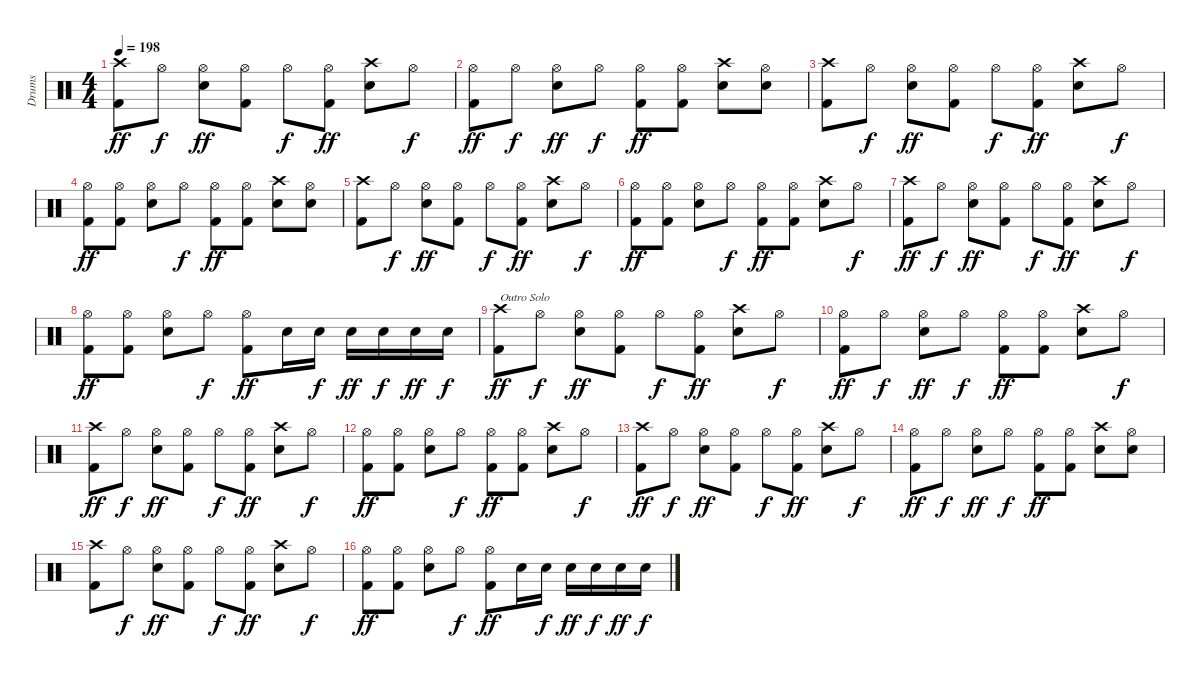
\track ("Drums" "Drums") {instrument percussion}
\staff {score}
\articulation defaults
\ts (4 4)
\tempo 198
\clef neutral
\ks c
("Crash high (hit)" "Kick (hit) 2").8{dy ff} "Hi-Hat (open)".8{dy f} ("Hi-Hat (open)" "Snare (hit) 2").8{dy ff} ("Hi-Hat (open)" "Kick (hit) 2").8 "Hi-Hat (open)".8{dy f} ("Hi-Hat (open)" "Kick (hit) 2").8{dy ff} ("Crash high (hit)" "Snare (hit) 2").8 "Hi-Hat (open)".8{dy f} |
("Hi-Hat (open)" "Kick (hit) 2").8{dy ff} "Hi-Hat (open)".8{dy f} ("Hi-Hat (open)" "Snare (hit) 2").8{dy ff} "Hi-Hat (open)".8{dy f} ("Hi-Hat (open)" "Kick (hit) 2").8{dy ff} ("Hi-Hat (open)" "Kick (hit) 2").8 ("Crash high (hit)" "Snare (hit) 2").8 ("Hi-Hat (open)" "Snare (hit) 2").8 |
("Crash high (hit)" "Kick (hit) 2").8 "Hi-Hat (open)".8{dy f} ("Hi-Hat (open)" "Snare (hit) 2").8{dy ff} ("Hi-Hat (open)" "Kick (hit) 2").8 "Hi-Hat (open)".8{dy f} ("Hi-Hat (open)" "Kick (hit) 2").8{dy ff} ("Crash high (hit)" "Snare (hit) 2").8 "Hi-Hat (open)".8{dy f} |
("Hi-Hat (open)" "Kick (hit) 2").8{dy ff} ("Hi-Hat (open)" "Kick (hit) 2").8 ("Hi-Hat (open)" "Snare (hit) 2").8 "Hi-Hat (open)".8{dy f} ("Hi-Hat (open)" "Kick (hit) 2").8{dy ff} ("Hi-Hat (open)" "Kick (hit) 2").8 ("Crash high (hit)" "Snare (hit) 2").8 ("Hi-Hat (open)" "Snare (hit) 2").8 |
("Crash high (hit)" "Kick (hit) 2").8 "Hi-Hat (open)".8{dy f} ("Hi-Hat (open)" "Snare (hit) 2").8{dy ff} ("Hi-Hat (open)" "Kick (hit) 2").8 "Hi-Hat (open)".8{dy f} ("Hi-Hat (open)" "Kick (hit) 2").8{dy ff} ("Crash high (hit)" "Snare (hit) 2").8 "Hi-Hat (open)".8{dy f} |
("Hi-Hat (open)" "Kick (hit) 2").8{dy ff} ("Hi-Hat (open)" "Kick (hit) 2").8 ("Hi-Hat (open)" "Snare (hit) 2").8 "Hi-Hat (open)".8{dy f} ("Hi-Hat (open)" "Kick (hit) 2").8{dy ff} ("Hi-Hat (open)" "Kick (hit) 2").8 ("Crash high (hit)" "Snare (hit) 2").8 "Hi-Hat (open)".8{dy f} |
("Crash high (hit)" "Kick (hit) 2").8{dy ff} "Hi-Hat (open)".8{dy f} ("Hi-Hat (open)" "Snare (hit) 2").8{dy ff} ("Hi-Hat (open)" "Kick (hit) 2").8 "Hi-Hat (open)".8{dy f} ("Hi-Hat (open)" "Kick (hit) 2").8{dy ff} ("Crash high (hit)" "Snare (hit) 2").8 "Hi-Hat (open)".8{dy f} |
("Hi-Hat (open)" "Kick (hit) 2").8{dy ff} ("Hi-Hat (open)" "Kick (hit) 2").8 ("Hi-Hat (open)" "Snare (hit) 2").8 "Hi-Hat (open)".8{dy f} ("Hi-Hat (open)" "Kick (hit) 2").8{dy ff} "Snare (hit) 2".16 "Snare (hit) 2".16{dy f} "Snare (hit) 2".16{dy ff} "Snare (hit) 2".16{dy f} "Snare (hit) 2".16{dy ff} "Snare (hit) 2".16{dy f} |
("Crash high (hit)" "Kick (hit) 2").8{txt "Outro Solo" dy ff} "Hi-Hat (open)".8{dy f} ("Hi-Hat (open)" "Snare (hit) 2").8{dy ff} ("Hi-Hat (open)" "Kick (hit) 2").8 "Hi-Hat (open)".8{dy f} ("Hi-Hat (open)" "Kick (hit) 2").8{dy ff} ("Crash high (hit)" "Snare (hit) 2").8 "Hi-Hat (open)".8{dy f} |
("Hi-Hat (open)" "Kick (hit) 2").8{dy ff} "Hi-Hat (open)".8{dy f} ("Hi-Hat (open)" "Snare (hit) 2").8{dy ff} "Hi-Hat (open)".8{dy f} ("Hi-Hat (open)" "Kick (hit) 2").8{dy ff} ("Hi-Hat (open)" "Kick (hit) 2").8 ("Crash high (hit)" "Snare (hit) 2").8 "Hi-Hat (open)".8{dy f} |
("Crash high (hit)" "Kick (hit) 2").8{dy ff} "Hi-Hat (open)".8{dy f} ("Hi-Hat (open)" "Snare (hit) 2").8{dy ff} ("Hi-Hat (open)" "Kick (hit) 2").8 "Hi-Hat (open)".8{dy f} ("Hi-Hat (open)" "Kick (hit) 2").8{dy ff} ("Crash high (hit)" "Snare (hit) 2").8 "Hi-Hat (open)".8{dy f} |
("Hi-Hat (open)" "Kick (hit) 2").8{dy ff} ("Hi-Hat (open)" "Kick (hit) 2").8 ("Hi-Hat (open)" "Snare (hit) 2").8 "Hi-Hat (open)".8{dy f} ("Hi-Hat (open)" "Kick (hit) 2").8{dy ff} ("Hi-Hat (open)" "Kick (hit) 2").8 ("Crash high (hit)" "Snare (hit) 2").8 "Hi-Hat (open)".8{dy f} |
("Crash high (hit)" "Kick (hit) 2").8{dy ff} "Hi-Hat (open)".8{dy f} ("Hi-Hat (open)" "Snare (hit) 2").8{dy ff} ("Hi-Hat (open)" "Kick (hit) 2").8 "Hi-Hat (open)".8{dy f} ("Hi-Hat (open)" "Kick (hit) 2").8{dy ff} ("Crash high (hit)" "Snare (hit) 2").8 "Hi-Hat (open)".8{dy f} |
("Hi-Hat (open)" "Kick (hit) 2").8{dy ff} "Hi-Hat (open)".8{dy f} ("Hi-Hat (open)" "Snare (hit) 2").8{dy ff} "Hi-Hat (open)".8{dy f} ("Hi-Hat (open)" "Kick (hit) 2").8{dy ff} ("Hi-Hat (open)" "Kick (hit) 2").8 ("Crash high (hit)" "Snare (hit) 2").8 ("Hi-Hat (open)" "Snare (hit) 2").8 |
("Crash high (hit)" "Kick (hit) 2").8 "Hi-Hat (open)".8{dy f} ("Hi-Hat (open)" "Snare (hit) 2").8{dy ff} ("Hi-Hat (open)" "Kick (hit) 2").8 "Hi-Hat (open)".8{dy f} ("Hi-Hat (open)" "Kick (hit) 2").8{dy ff} ("Crash high (hit)" "Snare (hit) 2").8 "Hi-Hat (open)".8{dy f} |
("Hi-Hat (open)" "Kick (hit) 2").8{dy ff} ("Hi-Hat (open)" "Kick (hit) 2").8 ("Hi-Hat (open)" "Snare (hit) 2").8 "Hi-Hat (open)".8{dy f} ("Hi-Hat (open)" "Kick (hit) 2").8{dy ff} "Snare (hit) 2".16 "Snare (hit) 2".16{dy f} "Snare (hit) 2".16{dy ff} "Snare (hit) 2".16{dy f} "Snare (hit) 2".16{dy ff} "Snare (hit) 2".16{dy f}
